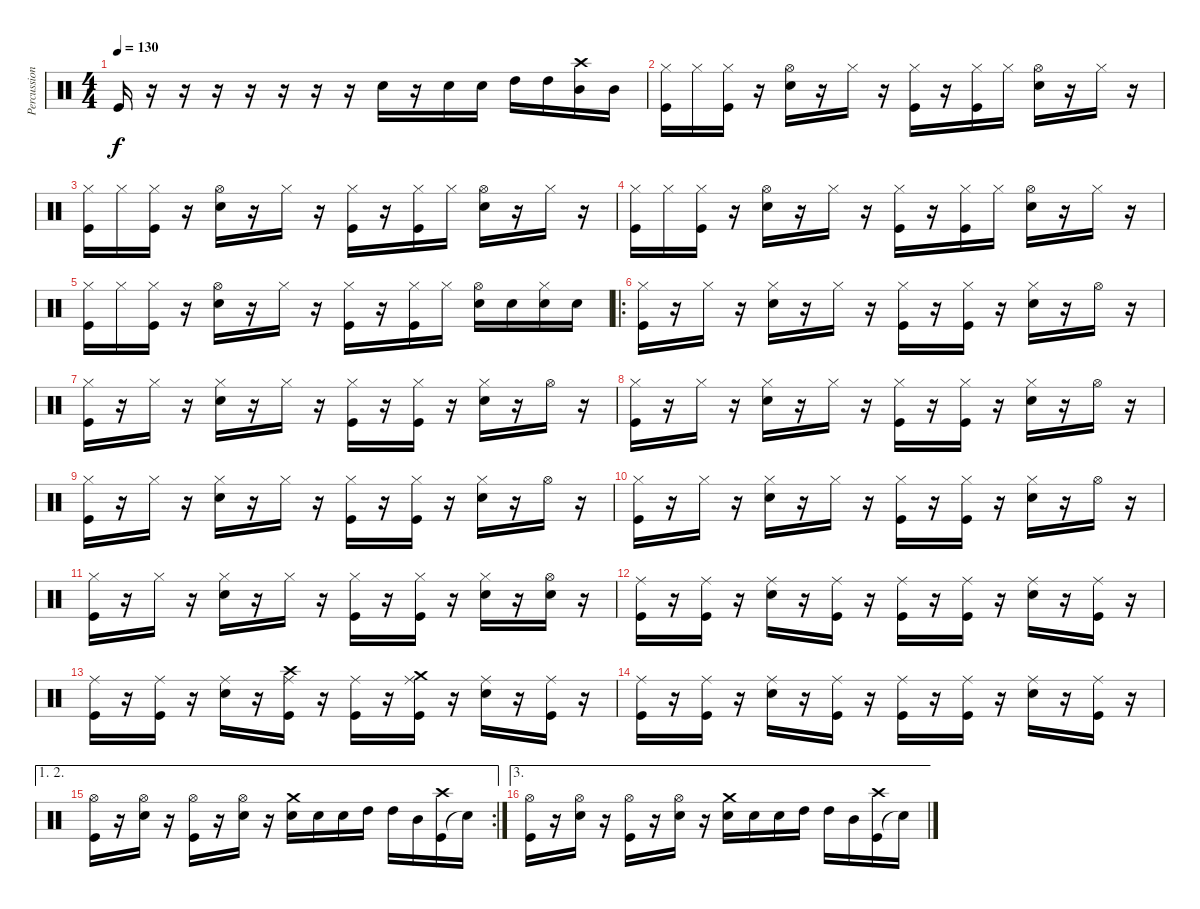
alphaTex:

\track ("Percussion" "Percussion") {instrument percussion}
\staff {score}
\articulation defaults
\ts (4 4)
\tempo 130
\clef neutral
\ks c "Kick (hit)".16{dy f}
r.16 r.16 r.16 r.16 r.16 r.16 r.16 "Snare (hit) 2".16 r.16 "Snare (hit) 2".16 "Snare (hit) 2".16 "High Tom (hit)".16 "High Tom (hit)".16 ("Mid Tom (hit)" "Crash high (hit)").16 "Mid Tom (hit)".16 |
("Kick (hit)" "Hi-Hat (closed)").16 "Hi-Hat (closed)".16 ("Kick (hit)" "Hi-Hat (closed)").16 r.16 ("Snare (hit) 2" "Hi-Hat (open)").16 r.16 "Hi-Hat (closed)".16 r.16 ("Kick (hit)" "Hi-Hat (closed)").16 r.16 ("Kick (hit)" "Hi-Hat (closed)").16 "Hi-Hat (closed)".16 ("Snare (hit) 2" "Hi-Hat (open)").16 r.16 "Hi-Hat (closed)".16 r.16 |
("Kick (hit)" "Hi-Hat (closed)").16 "Hi-Hat (closed)".16 ("Kick (hit)" "Hi-Hat (closed)").16 r.16 ("Snare (hit) 2" "Hi-Hat (open)").16 r.16 "Hi-Hat (closed)".16 r.16 ("Kick (hit)" "Hi-Hat (closed)").16 r.16 ("Kick (hit)" "Hi-Hat (closed)").16 "Hi-Hat (closed)".16 ("Snare (hit) 2" "Hi-Hat (open)").16 r.16 "Hi-Hat (closed)".16 r.16 |
("Kick (hit)" "Hi-Hat (closed)").16 "Hi-Hat (closed)".16 ("Kick (hit)" "Hi-Hat (closed)").16 r.16 ("Snare (hit) 2" "Hi-Hat (open)").16 r.16 "Hi-Hat (closed)".16 r.16 ("Kick (hit)" "Hi-Hat (closed)").16 r.16 ("Kick (hit)" "Hi-Hat (closed)").16 "Hi-Hat (closed)".16 ("Snare (hit) 2" "Hi-Hat (open)").16 r.16 "Hi-Hat (closed)".16 r.16 |
("Kick (hit)" "Hi-Hat (closed)").16 "Hi-Hat (closed)".16 ("Kick (hit)" "Hi-Hat (closed)").16 r.16 ("Snare (hit) 2" "Hi-Hat (open)").16 r.16 "Hi-Hat (closed)".16 r.16 ("Kick (hit)" "Hi-Hat (closed)").16 r.16 ("Kick (hit)" "Hi-Hat (closed)").16 "Hi-Hat (closed)".16 ("Snare (hit) 2" "Hi-Hat (open)").16 "Snare (hit) 2".16 ("Snare (hit) 2" "Hi-Hat (closed)").16 "Snare (hit) 2".16 |
\ro
("Kick (hit)" "Hi-Hat (closed)").16 r.16 "Hi-Hat (closed)".16 r.16 ("Snare (hit) 2" "Hi-Hat (closed)").16 r.16 "Hi-Hat (closed)".16 r.16 ("Kick (hit)" "Hi-Hat (closed)").16 r.16 ("Kick (hit)" "Hi-Hat (closed)").16 r.16 ("Snare (hit) 2" "Hi-Hat (closed)").16 r.16 "Hi-Hat (open)".16 r.16 |
("Kick (hit)" "Hi-Hat (closed)").16 r.16 "Hi-Hat (closed)".16 r.16 ("Snare (hit) 2" "Hi-Hat (closed)").16 r.16 "Hi-Hat (closed)".16 r.16 ("Kick (hit)" "Hi-Hat (closed)").16 r.16 ("Kick (hit)" "Hi-Hat (closed)").16 r.16 ("Snare (hit) 2" "Hi-Hat (closed)").16 r.16 "Hi-Hat (open)".16 r.16 |
("Kick (hit)" "Hi-Hat (closed)").16 r.16 "Hi-Hat (closed)".16 r.16 ("Snare (hit) 2" "Hi-Hat (closed)").16 r.16 "Hi-Hat (closed)".16 r.16 ("Kick (hit)" "Hi-Hat (closed)").16 r.16 ("Kick (hit)" "Hi-Hat (closed)").16 r.16 ("Snare (hit) 2" "Hi-Hat (closed)").16 r.16 "Hi-Hat (open)".16 r.16 |
("Kick (hit)" "Hi-Hat (closed)").16 r.16 "Hi-Hat (closed)".16 r.16 ("Snare (hit) 2" "Hi-Hat (closed)").16 r.16 "Hi-Hat (closed)".16 r.16 ("Kick (hit)" "Hi-Hat (closed)").16 r.16 ("Kick (hit)" "Hi-Hat (closed)").16 r.16 ("Snare (hit) 2" "Hi-Hat (closed)").16 r.16 "Hi-Hat (open)".16 r.16 |
("Kick (hit)" "Hi-Hat (closed)").16 r.16 "Hi-Hat (closed)".16 r.16 ("Snare (hit) 2" "Hi-Hat (closed)").16 r.16 "Hi-Hat (closed)".16 r.16 ("Kick (hit)" "Hi-Hat (closed)").16 r.16 ("Kick (hit)" "Hi-Hat (closed)").16 r.16 ("Snare (hit) 2" "Hi-Hat (closed)").16 r.16 "Hi-Hat (open)".16 r.16 |
("Kick (hit)" "Hi-Hat (closed)").16 r.16 "Hi-Hat (closed)".16 r.16 ("Snare (hit) 2" "Hi-Hat (closed)").16 r.16 "Hi-Hat (closed)".16 r.16 ("Kick (hit)" "Hi-Hat (closed)").16 r.16 ("Kick (hit)" "Hi-Hat (closed)").16 r.16 ("Snare (hit) 2" "Hi-Hat (closed)").16 r.16 ("Snare (hit) 2" "Hi-Hat (open)").16 r.16 |
("Kick (hit)" "Ride (middle)").16 r.16 ("Kick (hit)" "Ride (middle)").16 r.16 ("Snare (hit) 2" "Ride (middle)").16 r.16 ("Kick (hit)" "Ride (middle)").16 r.16 ("Kick (hit)" "Ride (middle)").16 r.16 ("Kick (hit)" "Ride (middle)").16 r.16 ("Snare (hit) 2" "Ride (middle)").16 r.16 ("Kick (hit)" "Ride (middle)").16 r.16 |
("Kick (hit)" "Ride (middle)").16 r.16 ("Kick (hit)" "Ride (middle)").16 r.16 ("Snare (hit) 2" "Ride (middle)").16 r.16 ("Kick (hit)" "Ride (middle)" "Crash high (hit)").16 r.16 ("Kick (hit)" "Ride (middle)").16 r.16 ("Kick (hit)" "Ride (middle)" "Crash medium (hit)").16 r.16 ("Snare (hit) 2" "Ride (middle)").16 r.16 ("Kick (hit)" "Ride (middle)").16 r.16 |
("Kick (hit)" "Ride (middle)").16 r.16 ("Kick (hit)" "Ride (middle)").16 r.16 ("Snare (hit) 2" "Ride (middle)").16 r.16 ("Kick (hit)" "Ride (middle)").16 r.16 ("Kick (hit)" "Ride (middle)").16 r.16 ("Kick (hit)" "Ride (middle)").16 r.16 ("Snare (hit) 2" "Ride (middle)").16 r.16 ("Kick (hit)" "Ride (middle)").16 r.16 |
\ae (1 2)
\rc 2
("Kick (hit)" "Hi-Hat (open)").16 r.16 ("Snare (hit) 2" "Hi-Hat (open)").16 r.16 ("Kick (hit)" "Hi-Hat (open)").16 r.16 ("Snare (hit) 2" "Hi-Hat (open)").16 r.16 ("Snare (hit) 2" "Crash medium (hit)").16 "Snare (hit) 2".16 "Snare (hit) 2".16 "High Tom (hit)".16 "High Tom (hit)".16 "Mid Tom (hit)".16 ("Kick (hit)" "Crash high (hit)").16 "Snare (hit)"{t}.16 |
\ae 3
("Kick (hit)" "Hi-Hat (open)").16 r.16 ("Snare (hit) 2" "Hi-Hat (open)").16 r.16 ("Kick (hit)" "Hi-Hat (open)").16 r.16 ("Snare (hit) 2" "Hi-Hat (open)").16 r.16 ("Snare (hit) 2" "Crash medium (hit)").16 "Snare (hit) 2".16 "Snare (hit) 2".16 "High Tom (hit)".16 "High Tom (hit)".16 "Mid Tom (hit)".16 ("Kick (hit)" "Crash high (hit)").16 "Snare (hit)"{t}.16
